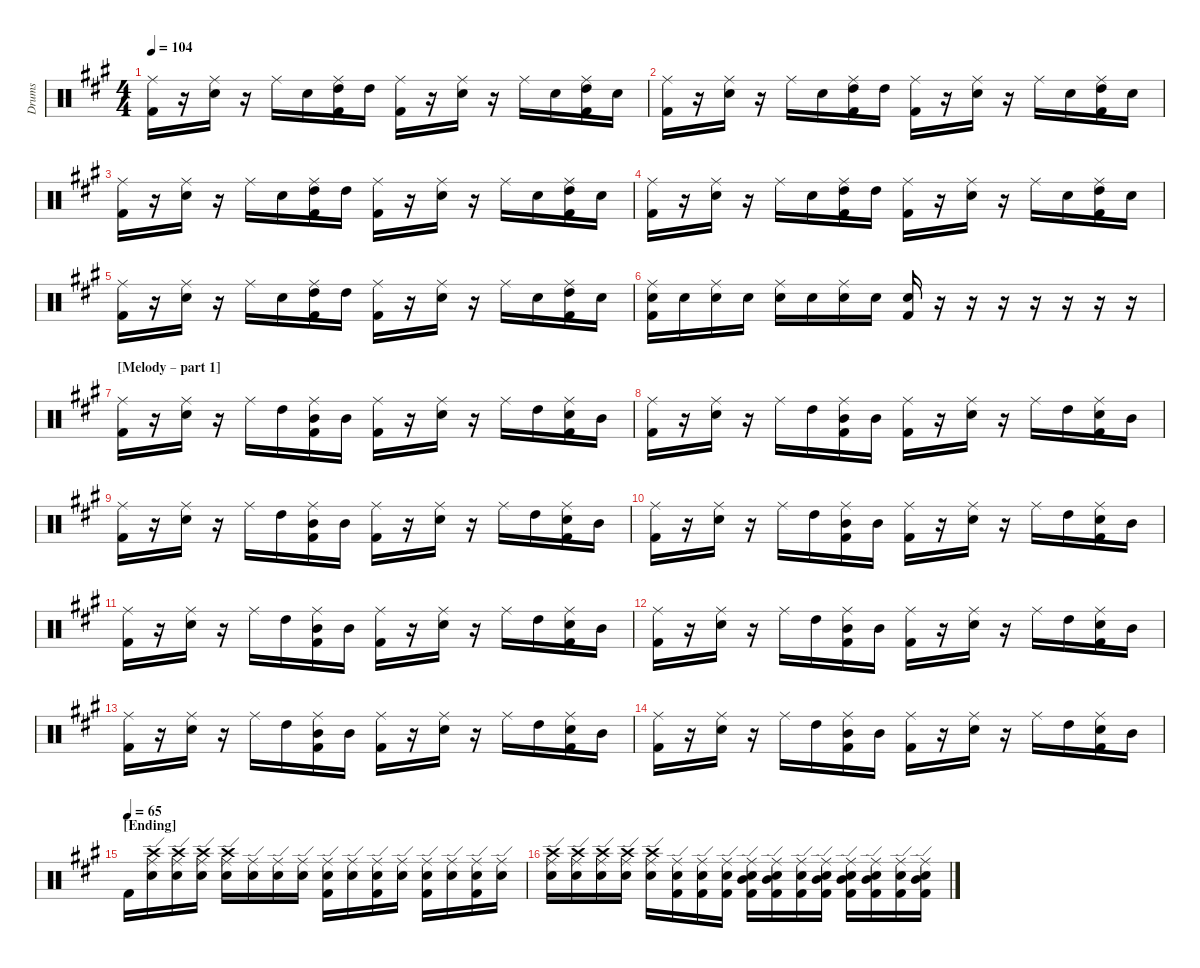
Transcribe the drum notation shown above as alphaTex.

\hideDynamics
\bracketExtendMode nobrackets
\otherSystemsTrackNameOrientation horizontal
\track ("Drumkit" "Drums") {instrument percussion}
\staff {score}
\articulation defaults
\ts (4 4)
\tempo 104
\clef neutral
\ks a
("Ride (middle)"{acc forcenatural} "Kick (hit) 2"{acc forcenatural}).16{dy f beam Down} r.16{beam Down} ("Ride (middle)"{acc forcenatural} "Snare (hit) 2"{acc forcenatural}).16{beam Down} r.16{beam Down} "Ride (middle)"{acc forcenatural}.16{beam Down} "Snare (hit) 2"{acc forcenatural}.16{beam Down} ("Ride (middle)"{acc forcenatural} "High Tom (hit)"{acc forcenatural} "Kick (hit) 2"{acc forcenatural}).16{beam Down} "High Tom (hit)"{acc forcenatural}.16{beam Down} ("Ride (middle)"{acc forcenatural} "Kick (hit) 2"{acc forcenatural}).16{beam Down} r.16{beam Down} ("Ride (middle)"{acc forcenatural} "Snare (hit) 2"{acc forcenatural}).16{beam Down} r.16{beam Down} "Ride (middle)"{acc forcenatural}.16{beam Down} "Snare (hit) 2"{acc forcenatural}.16{beam Down} ("Ride (middle)"{acc forcenatural} "High Tom (hit)"{acc forcenatural} "Kick (hit) 2"{acc forcenatural}).16{beam Down} "Snare (hit) 2"{acc forcenatural}.16{beam Down} |
("Ride (middle)"{acc forcenatural} "Kick (hit) 2"{acc forcenatural}).16{beam Down} r.16{beam Down} ("Ride (middle)"{acc forcenatural} "Snare (hit) 2"{acc forcenatural}).16{beam Down} r.16{beam Down} "Ride (middle)"{acc forcenatural}.16{beam Down} "Snare (hit) 2"{acc forcenatural}.16{beam Down} ("Ride (middle)"{acc forcenatural} "High Tom (hit)"{acc forcenatural} "Kick (hit) 2"{acc forcenatural}).16{beam Down} "High Tom (hit)"{acc forcenatural}.16{beam Down} ("Ride (middle)"{acc forcenatural} "Kick (hit) 2"{acc forcenatural}).16{beam Down} r.16{beam Down} ("Ride (middle)"{acc forcenatural} "Snare (hit) 2"{acc forcenatural}).16{beam Down} r.16{beam Down} "Ride (middle)"{acc forcenatural}.16{beam Down} "Snare (hit) 2"{acc forcenatural}.16{beam Down} ("Ride (middle)"{acc forcenatural} "High Tom (hit)"{acc forcenatural} "Kick (hit) 2"{acc forcenatural}).16{beam Down} "Snare (hit) 2"{acc forcenatural}.16{beam Down} |
("Ride (middle)"{acc forcenatural} "Kick (hit) 2"{acc forcenatural}).16{beam Down} r.16{beam Down} ("Ride (middle)"{acc forcenatural} "Snare (hit) 2"{acc forcenatural}).16{beam Down} r.16{beam Down} "Ride (middle)"{acc forcenatural}.16{beam Down} "Snare (hit) 2"{acc forcenatural}.16{beam Down} ("Ride (middle)"{acc forcenatural} "High Tom (hit)"{acc forcenatural} "Kick (hit) 2"{acc forcenatural}).16{beam Down} "High Tom (hit)"{acc forcenatural}.16{beam Down} ("Ride (middle)"{acc forcenatural} "Kick (hit) 2"{acc forcenatural}).16{beam Down} r.16{beam Down} ("Ride (middle)"{acc forcenatural} "Snare (hit) 2"{acc forcenatural}).16{beam Down} r.16{beam Down} "Ride (middle)"{acc forcenatural}.16{beam Down} "Snare (hit) 2"{acc forcenatural}.16{beam Down} ("Ride (middle)"{acc forcenatural} "High Tom (hit)"{acc forcenatural} "Kick (hit) 2"{acc forcenatural}).16{beam Down} "Snare (hit) 2"{acc forcenatural}.16{beam Down} |
("Ride (middle)"{acc forcenatural} "Kick (hit) 2"{acc forcenatural}).16{beam Down} r.16{beam Down} ("Ride (middle)"{acc forcenatural} "Snare (hit) 2"{acc forcenatural}).16{beam Down} r.16{beam Down} "Ride (middle)"{acc forcenatural}.16{beam Down} "Snare (hit) 2"{acc forcenatural}.16{beam Down} ("Ride (middle)"{acc forcenatural} "High Tom (hit)"{acc forcenatural} "Kick (hit) 2"{acc forcenatural}).16{beam Down} "High Tom (hit)"{acc forcenatural}.16{beam Down} ("Ride (middle)"{acc forcenatural} "Kick (hit) 2"{acc forcenatural}).16{beam Down} r.16{beam Down} ("Ride (middle)"{acc forcenatural} "Snare (hit) 2"{acc forcenatural}).16{beam Down} r.16{beam Down} "Ride (middle)"{acc forcenatural}.16{beam Down} "Snare (hit) 2"{acc forcenatural}.16{beam Down} ("Ride (middle)"{acc forcenatural} "High Tom (hit)"{acc forcenatural} "Kick (hit) 2"{acc forcenatural}).16{beam Down} "Snare (hit) 2"{acc forcenatural}.16{beam Down} |
("Ride (middle)"{acc forcenatural} "Kick (hit) 2"{acc forcenatural}).16{beam Down} r.16{beam Down} ("Ride (middle)"{acc forcenatural} "Snare (hit) 2"{acc forcenatural}).16{beam Down} r.16{beam Down} "Ride (middle)"{acc forcenatural}.16{beam Down} "Snare (hit) 2"{acc forcenatural}.16{beam Down} ("Ride (middle)"{acc forcenatural} "High Tom (hit)"{acc forcenatural} "Kick (hit) 2"{acc forcenatural}).16{beam Down} "High Tom (hit)"{acc forcenatural}.16{beam Down} ("Ride (middle)"{acc forcenatural} "Kick (hit) 2"{acc forcenatural}).16{beam Down} r.16{beam Down} ("Ride (middle)"{acc forcenatural} "Snare (hit) 2"{acc forcenatural}).16{beam Down} r.16{beam Down} "Ride (middle)"{acc forcenatural}.16{beam Down} "Snare (hit) 2"{acc forcenatural}.16{beam Down} ("Ride (middle)"{acc forcenatural} "High Tom (hit)"{acc forcenatural} "Kick (hit) 2"{acc forcenatural}).16{beam Down} "Snare (hit) 2"{acc forcenatural}.16{beam Down} |
("Ride (middle)"{acc forcenatural} "Snare (hit) 2"{acc forcenatural} "Kick (hit) 2"{acc forcenatural}).16{beam Down} "Snare (hit) 2"{acc forcenatural}.16{beam Down} ("Ride (middle)"{acc forcenatural} "Snare (hit) 2"{acc forcenatural}).16{beam Down} "Snare (hit) 2"{acc forcenatural}.16{beam Down} ("Ride (middle)"{acc forcenatural} "Snare (hit) 2"{acc forcenatural}).16{beam Down} "Snare (hit) 2"{acc forcenatural}.16{beam Down} ("Ride (middle)"{acc forcenatural} "Snare (hit) 2"{acc forcenatural}).16{beam Down} "Snare (hit) 2"{acc forcenatural}.16{beam Down} ("Snare (hit) 2"{acc forcenatural} "Kick (hit) 2"{acc forcenatural}).16{beam Up} r.16{beam Up} r.16{beam Up} r.16{beam Up} r.16{beam Up} r.16{beam Up} r.16{beam Up} r.16{beam Up} |
\section ("" "[Melody – part 1] ")
("Ride (middle)"{acc forcenatural} "Kick (hit) 2"{acc forcenatural}).16{beam Down} r.16{beam Down} ("Ride (middle)"{acc forcenatural} "Snare (hit) 2"{acc forcenatural}).16{beam Down} r.16{beam Down} "Ride (middle)"{acc forcenatural}.16{beam Down} "High Tom (hit)"{acc forcenatural}.16{beam Down} ("Ride (middle)"{acc forcenatural} "Mid Tom (hit)"{acc forcenatural} "Kick (hit) 2"{acc forcenatural}).16{beam Down} "Mid Tom (hit)"{acc forcenatural}.16{beam Down} ("Ride (middle)"{acc forcenatural} "Kick (hit) 2"{acc forcenatural}).16{beam Down} r.16{beam Down} ("Ride (middle)"{acc forcenatural} "Snare (hit) 2"{acc forcenatural}).16{beam Down} r.16{beam Down} "Ride (middle)"{acc forcenatural}.16{beam Down} "High Tom (hit)"{acc forcenatural}.16{beam Down} ("Ride (middle)"{acc forcenatural} "Snare (hit) 2"{acc forcenatural} "Kick (hit) 2"{acc forcenatural}).16{beam Down} "Mid Tom (hit)"{acc forcenatural}.16{beam Down} |
("Ride (middle)"{acc forcenatural} "Kick (hit) 2"{acc forcenatural}).16{beam Down} r.16{beam Down} ("Ride (middle)"{acc forcenatural} "Snare (hit) 2"{acc forcenatural}).16{beam Down} r.16{beam Down} "Ride (middle)"{acc forcenatural}.16{beam Down} "High Tom (hit)"{acc forcenatural}.16{beam Down} ("Ride (middle)"{acc forcenatural} "Mid Tom (hit)"{acc forcenatural} "Kick (hit) 2"{acc forcenatural}).16{beam Down} "Mid Tom (hit)"{acc forcenatural}.16{beam Down} ("Ride (middle)"{acc forcenatural} "Kick (hit) 2"{acc forcenatural}).16{beam Down} r.16{beam Down} ("Ride (middle)"{acc forcenatural} "Snare (hit) 2"{acc forcenatural}).16{beam Down} r.16{beam Down} "Ride (middle)"{acc forcenatural}.16{beam Down} "High Tom (hit)"{acc forcenatural}.16{beam Down} ("Ride (middle)"{acc forcenatural} "Snare (hit) 2"{acc forcenatural} "Kick (hit) 2"{acc forcenatural}).16{beam Down} "Mid Tom (hit)"{acc forcenatural}.16{beam Down} |
("Ride (middle)"{acc forcenatural} "Kick (hit) 2"{acc forcenatural}).16{beam Down} r.16{beam Down} ("Ride (middle)"{acc forcenatural} "Snare (hit) 2"{acc forcenatural}).16{beam Down} r.16{beam Down} "Ride (middle)"{acc forcenatural}.16{beam Down} "High Tom (hit)"{acc forcenatural}.16{beam Down} ("Ride (middle)"{acc forcenatural} "Mid Tom (hit)"{acc forcenatural} "Kick (hit) 2"{acc forcenatural}).16{beam Down} "Mid Tom (hit)"{acc forcenatural}.16{beam Down} ("Ride (middle)"{acc forcenatural} "Kick (hit) 2"{acc forcenatural}).16{beam Down} r.16{beam Down} ("Ride (middle)"{acc forcenatural} "Snare (hit) 2"{acc forcenatural}).16{beam Down} r.16{beam Down} "Ride (middle)"{acc forcenatural}.16{beam Down} "High Tom (hit)"{acc forcenatural}.16{beam Down} ("Ride (middle)"{acc forcenatural} "Snare (hit) 2"{acc forcenatural} "Kick (hit) 2"{acc forcenatural}).16{beam Down} "Mid Tom (hit)"{acc forcenatural}.16{beam Down} |
("Ride (middle)"{acc forcenatural} "Kick (hit) 2"{acc forcenatural}).16{beam Down} r.16{beam Down} ("Ride (middle)"{acc forcenatural} "Snare (hit) 2"{acc forcenatural}).16{beam Down} r.16{beam Down} "Ride (middle)"{acc forcenatural}.16{beam Down} "High Tom (hit)"{acc forcenatural}.16{beam Down} ("Ride (middle)"{acc forcenatural} "Mid Tom (hit)"{acc forcenatural} "Kick (hit) 2"{acc forcenatural}).16{beam Down} "Mid Tom (hit)"{acc forcenatural}.16{beam Down} ("Ride (middle)"{acc forcenatural} "Kick (hit) 2"{acc forcenatural}).16{beam Down} r.16{beam Down} ("Ride (middle)"{acc forcenatural} "Snare (hit) 2"{acc forcenatural}).16{beam Down} r.16{beam Down} "Ride (middle)"{acc forcenatural}.16{beam Down} "High Tom (hit)"{acc forcenatural}.16{beam Down} ("Ride (middle)"{acc forcenatural} "Snare (hit) 2"{acc forcenatural} "Kick (hit) 2"{acc forcenatural}).16{beam Down} "Mid Tom (hit)"{acc forcenatural}.16{beam Down} |
("Ride (middle)"{acc forcenatural} "Kick (hit) 2"{acc forcenatural}).16{beam Down} r.16{beam Down} ("Ride (middle)"{acc forcenatural} "Snare (hit) 2"{acc forcenatural}).16{beam Down} r.16{beam Down} "Ride (middle)"{acc forcenatural}.16{beam Down} "High Tom (hit)"{acc forcenatural}.16{beam Down} ("Ride (middle)"{acc forcenatural} "Mid Tom (hit)"{acc forcenatural} "Kick (hit) 2"{acc forcenatural}).16{beam Down} "Mid Tom (hit)"{acc forcenatural}.16{beam Down} ("Ride (middle)"{acc forcenatural} "Kick (hit) 2"{acc forcenatural}).16{beam Down} r.16{beam Down} ("Ride (middle)"{acc forcenatural} "Snare (hit) 2"{acc forcenatural}).16{beam Down} r.16{beam Down} "Ride (middle)"{acc forcenatural}.16{beam Down} "High Tom (hit)"{acc forcenatural}.16{beam Down} ("Ride (middle)"{acc forcenatural} "Snare (hit) 2"{acc forcenatural} "Kick (hit) 2"{acc forcenatural}).16{beam Down} "Mid Tom (hit)"{acc forcenatural}.16{beam Down} |
("Ride (middle)"{acc forcenatural} "Kick (hit) 2"{acc forcenatural}).16{beam Down} r.16{beam Down} ("Ride (middle)"{acc forcenatural} "Snare (hit) 2"{acc forcenatural}).16{beam Down} r.16{beam Down} "Ride (middle)"{acc forcenatural}.16{beam Down} "High Tom (hit)"{acc forcenatural}.16{beam Down} ("Ride (middle)"{acc forcenatural} "Mid Tom (hit)"{acc forcenatural} "Kick (hit) 2"{acc forcenatural}).16{beam Down} "Mid Tom (hit)"{acc forcenatural}.16{beam Down} ("Ride (middle)"{acc forcenatural} "Kick (hit) 2"{acc forcenatural}).16{beam Down} r.16{beam Down} ("Ride (middle)"{acc forcenatural} "Snare (hit) 2"{acc forcenatural}).16{beam Down} r.16{beam Down} "Ride (middle)"{acc forcenatural}.16{beam Down} "High Tom (hit)"{acc forcenatural}.16{beam Down} ("Ride (middle)"{acc forcenatural} "Snare (hit) 2"{acc forcenatural} "Kick (hit) 2"{acc forcenatural}).16{beam Down} "Mid Tom (hit)"{acc forcenatural}.16{beam Down} |
("Ride (middle)"{acc forcenatural} "Kick (hit) 2"{acc forcenatural}).16{beam Down} r.16{beam Down} ("Ride (middle)"{acc forcenatural} "Snare (hit) 2"{acc forcenatural}).16{beam Down} r.16{beam Down} "Ride (middle)"{acc forcenatural}.16{beam Down} "High Tom (hit)"{acc forcenatural}.16{beam Down} ("Ride (middle)"{acc forcenatural} "Mid Tom (hit)"{acc forcenatural} "Kick (hit) 2"{acc forcenatural}).16{beam Down} "Mid Tom (hit)"{acc forcenatural}.16{beam Down} ("Ride (middle)"{acc forcenatural} "Kick (hit) 2"{acc forcenatural}).16{beam Down} r.16{beam Down} ("Ride (middle)"{acc forcenatural} "Snare (hit) 2"{acc forcenatural}).16{beam Down} r.16{beam Down} "Ride (middle)"{acc forcenatural}.16{beam Down} "High Tom (hit)"{acc forcenatural}.16{beam Down} ("Ride (middle)"{acc forcenatural} "Snare (hit) 2"{acc forcenatural} "Kick (hit) 2"{acc forcenatural}).16{beam Down} "Mid Tom (hit)"{acc forcenatural}.16{beam Down} |
("Ride (middle)"{acc forcenatural} "Kick (hit) 2"{acc forcenatural}).16{beam Down} r.16{beam Down} ("Ride (middle)"{acc forcenatural} "Snare (hit) 2"{acc forcenatural}).16{beam Down} r.16{beam Down} "Ride (middle)"{acc forcenatural}.16{beam Down} "High Tom (hit)"{acc forcenatural}.16{beam Down} ("Ride (middle)"{acc forcenatural} "Mid Tom (hit)"{acc forcenatural} "Kick (hit) 2"{acc forcenatural}).16{beam Down} "Mid Tom (hit)"{acc forcenatural}.16{beam Down} ("Ride (middle)"{acc forcenatural} "Kick (hit) 2"{acc forcenatural}).16{beam Down} r.16{beam Down} ("Ride (middle)"{acc forcenatural} "Snare (hit) 2"{acc forcenatural}).16{beam Down} r.16{beam Down} "Ride (middle)"{acc forcenatural}.16{beam Down} "High Tom (hit)"{acc forcenatural}.16{beam Down} ("Ride (middle)"{acc forcenatural} "Snare (hit) 2"{acc forcenatural} "Kick (hit) 2"{acc forcenatural}).16{beam Down} "Mid Tom (hit)"{acc forcenatural}.16{beam Down} |
\section ("" "[Ending]")
\tempo (65)
"Kick (hit) 2"{acc forcenatural}.16{beam Down} ("Ride (edge)"{acc forcenatural} "Crash high (hit)"{acc forcenatural} "Snare (hit) 2"{acc forcenatural}).16{beam Down} ("Ride (edge)"{acc forcenatural} "Crash high (hit)"{acc forcenatural} "Snare (hit) 2"{acc forcenatural}).16{beam Down} ("Ride (edge)"{acc forcenatural} "Crash high (hit)"{acc forcenatural} "Snare (hit) 2"{acc forcenatural}).16{beam Down} ("Ride (edge)"{acc forcenatural} "Crash high (hit)"{acc forcenatural} "Snare (hit) 2"{acc forcenatural}).16{beam Down} ("Ride (edge)"{acc forcenatural} "Snare (hit) 2"{acc forcenatural}).16{beam Down} ("Ride (edge)"{acc forcenatural} "Snare (hit) 2"{acc forcenatural}).16{beam Down} ("Ride (edge)"{acc forcenatural} "Snare (hit) 2"{acc forcenatural}).16{beam Down} ("Ride (edge)"{acc forcenatural} "Snare (hit) 2"{acc forcenatural} "Kick (hit) 2"{acc forcenatural}).16{beam Down} ("Ride (edge)"{acc forcenatural} "Snare (hit) 2"{acc forcenatural}).16{beam Down} ("Ride (edge)"{acc forcenatural} "Snare (hit) 2"{acc forcenatural} "Kick (hit) 2"{acc forcenatural}).16{beam Down} ("Ride (edge)"{acc forcenatural} "Snare (hit) 2"{acc forcenatural}).16{beam Down} ("Ride (edge)"{acc forcenatural} "Snare (hit) 2"{acc forcenatural} "Kick (hit) 2"{acc forcenatural}).16{beam Down} ("Ride (edge)"{acc forcenatural} "Snare (hit) 2"{acc forcenatural}).16{beam Down} ("Ride (edge)"{acc forcenatural} "Snare (hit) 2"{acc forcenatural} "Kick (hit) 2"{acc forcenatural}).16{beam Down} ("Ride (edge)"{acc forcenatural} "Snare (hit) 2"{acc forcenatural}).16{beam Down} |
("Ride (edge)"{acc forcenatural} "Crash high (hit)"{acc forcenatural} "Snare (hit) 2"{acc forcenatural}).16{beam Down} ("Ride (edge)"{acc forcenatural} "Crash high (hit)"{acc forcenatural} "Snare (hit) 2"{acc forcenatural}).16{beam Down} ("Ride (edge)"{acc forcenatural} "Crash high (hit)"{acc forcenatural} "Snare (hit) 2"{acc forcenatural}).16{beam Down} ("Ride (edge)"{acc forcenatural} "Crash high (hit)"{acc forcenatural} "Snare (hit) 2"{acc forcenatural}).16{beam Down} ("Ride (edge)"{acc forcenatural} "Crash high (hit)"{acc forcenatural} "Snare (hit) 2"{acc forcenatural}).16{beam Down} ("Ride (edge)"{acc forcenatural} "Snare (hit) 2"{acc forcenatural} "Kick (hit) 2"{acc forcenatural}).16{beam Down} ("Ride (edge)"{acc forcenatural} "Snare (hit) 2"{acc forcenatural} "Kick (hit) 2"{acc forcenatural}).16{beam Down} ("Ride (edge)"{acc forcenatural} "Snare (hit) 2"{acc forcenatural} "Kick (hit) 2"{acc forcenatural}).16{beam Down} ("Ride (edge)"{acc forcenatural} "Mid Tom (hit)"{acc forcenatural} "Snare (hit) 2"{acc forcenatural} "Kick (hit) 2"{acc forcenatural}).16{beam Down} ("Ride (edge)"{acc forcenatural} "Mid Tom (hit)"{acc forcenatural} "Snare (hit) 2"{acc forcenatural} "Kick (hit) 2"{acc forcenatural}).16{beam Down} ("Ride (edge)"{acc forcenatural} "Snare (hit) 2"{acc forcenatural} "Kick (hit) 2"{acc forcenatural}).16{beam Down} ("Ride (edge)"{acc forcenatural} "Mid Tom (hit)"{acc forcenatural} "Snare (hit) 2"{acc forcenatural} "Kick (hit) 2"{acc forcenatural}).16{beam Down} ("Ride (edge)"{acc forcenatural} "Mid Tom (hit)"{acc forcenatural} "Snare (hit) 2"{acc forcenatural} "Kick (hit) 2"{acc forcenatural}).16{beam Down} ("Ride (edge)"{acc forcenatural} "Mid Tom (hit)"{acc forcenatural} "Snare (hit) 2"{acc forcenatural} "Kick (hit) 2"{acc forcenatural}).16{beam Down} ("Ride (edge)"{acc forcenatural} "Snare (hit) 2"{acc forcenatural} "Kick (hit) 2"{acc forcenatural}).16{beam Down} ("Ride (edge)"{acc forcenatural} "Mid Tom (hit)"{acc forcenatural} "Snare (hit) 2"{acc forcenatural} "Kick (hit) 2"{acc forcenatural}).16{beam Down}
